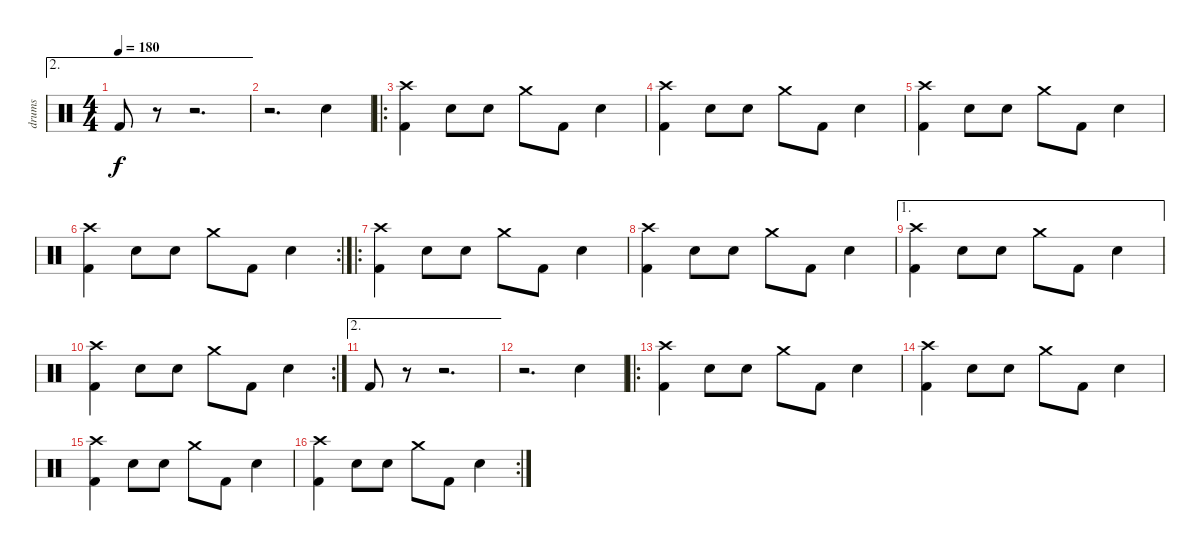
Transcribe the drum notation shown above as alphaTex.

\track ("drums" "drums") {instrument percussion}
\staff {score}
\articulation defaults
\ae 2
\ts (4 4)
\tempo 180
\clef neutral
\ks c "Kick (hit) 2".8{dy f}
r.8 r.2{d} |
r.2{d} "Electric Snare (hit)".4 |
\ro
("Crash high (hit)" "Kick (hit) 2").4 "Electric Snare (hit)".8 "Electric Snare (hit)".8 "Crash medium (hit)".8 "Kick (hit) 2".8 "Electric Snare (hit)".4 |
("Crash high (hit)" "Kick (hit) 2").4 "Electric Snare (hit)".8 "Electric Snare (hit)".8 "Crash medium (hit)".8 "Kick (hit) 2".8 "Electric Snare (hit)".4 |
("Crash high (hit)" "Kick (hit) 2").4 "Electric Snare (hit)".8 "Electric Snare (hit)".8 "Crash medium (hit)".8 "Kick (hit) 2".8 "Electric Snare (hit)".4 |
\rc 2
("Crash high (hit)" "Kick (hit) 2").4 "Electric Snare (hit)".8 "Electric Snare (hit)".8 "Crash medium (hit)".8 "Kick (hit) 2".8 "Electric Snare (hit)".4 |
\ro
("Crash high (hit)" "Kick (hit) 2").4 "Electric Snare (hit)".8 "Electric Snare (hit)".8 "Crash medium (hit)".8 "Kick (hit) 2".8 "Electric Snare (hit)".4 |
("Crash high (hit)" "Kick (hit) 2").4 "Electric Snare (hit)".8 "Electric Snare (hit)".8 "Crash medium (hit)".8 "Kick (hit) 2".8 "Electric Snare (hit)".4 |
\ae 1
("Crash high (hit)" "Kick (hit) 2").4 "Electric Snare (hit)".8 "Electric Snare (hit)".8 "Crash medium (hit)".8 "Kick (hit) 2".8 "Electric Snare (hit)".4 |
\rc 2
("Crash high (hit)" "Kick (hit) 2").4 "Electric Snare (hit)".8 "Electric Snare (hit)".8 "Crash medium (hit)".8 "Kick (hit) 2".8 "Electric Snare (hit)".4 |
\ae 2 "Kick (hit) 2".8
r.8 r.2{d} |
r.2{d} "Electric Snare (hit)".4 |
\ro
("Crash high (hit)" "Kick (hit) 2").4 "Electric Snare (hit)".8 "Electric Snare (hit)".8 "Crash medium (hit)".8 "Kick (hit) 2".8 "Electric Snare (hit)".4 |
("Crash high (hit)" "Kick (hit) 2").4 "Electric Snare (hit)".8 "Electric Snare (hit)".8 "Crash medium (hit)".8 "Kick (hit) 2".8 "Electric Snare (hit)".4 |
("Crash high (hit)" "Kick (hit) 2").4 "Electric Snare (hit)".8 "Electric Snare (hit)".8 "Crash medium (hit)".8 "Kick (hit) 2".8 "Electric Snare (hit)".4 |
\rc 2
("Crash high (hit)" "Kick (hit) 2").4 "Electric Snare (hit)".8 "Electric Snare (hit)".8 "Crash medium (hit)".8 "Kick (hit) 2".8 "Electric Snare (hit)".4
